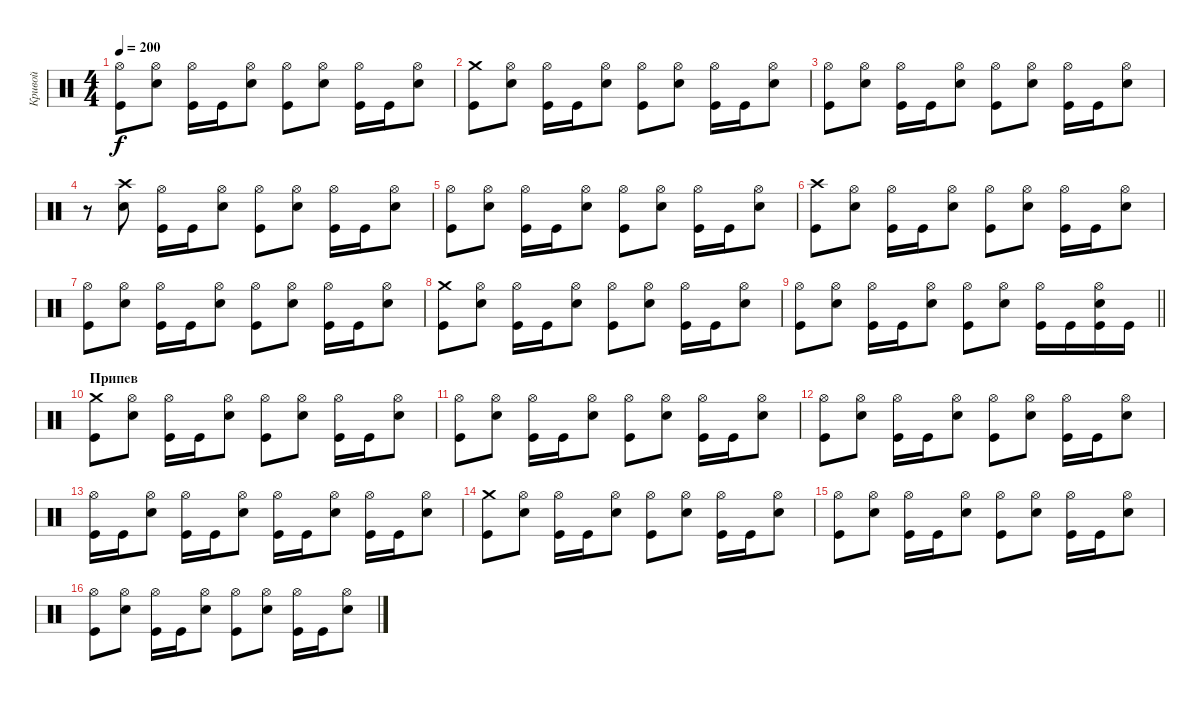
\track ("Кривой" "Кривой") {instrument percussion}
\staff {score}
\articulation defaults
\ts (4 4)
\tempo 200
\clef neutral
\ks c
("Hi-Hat (open)" "Kick (hit)").8{dy f} ("Hi-Hat (open)" "Electric Snare (hit)").8 ("Hi-Hat (open)" "Kick (hit)").16 "Kick (hit)".16 ("Hi-Hat (open)" "Electric Snare (hit)").8 ("Hi-Hat (open)" "Kick (hit)").8 ("Hi-Hat (open)" "Electric Snare (hit)").8 ("Hi-Hat (open)" "Kick (hit)").16 "Kick (hit)".16 ("Hi-Hat (open)" "Electric Snare (hit)").8 |
("Crash medium (hit)" "Kick (hit)").8 ("Hi-Hat (open)" "Electric Snare (hit)").8 ("Hi-Hat (open)" "Kick (hit)").16 "Kick (hit)".16 ("Hi-Hat (open)" "Electric Snare (hit)").8 ("Hi-Hat (open)" "Kick (hit)").8 ("Hi-Hat (open)" "Electric Snare (hit)").8 ("Hi-Hat (open)" "Kick (hit)").16 "Kick (hit)".16 ("Hi-Hat (open)" "Electric Snare (hit)").8 |
("Hi-Hat (open)" "Kick (hit)").8 ("Hi-Hat (open)" "Electric Snare (hit)").8 ("Hi-Hat (open)" "Kick (hit)").16 "Kick (hit)".16 ("Hi-Hat (open)" "Electric Snare (hit)").8 ("Hi-Hat (open)" "Kick (hit)").8 ("Hi-Hat (open)" "Electric Snare (hit)").8 ("Hi-Hat (open)" "Kick (hit)").16 "Kick (hit)".16 ("Hi-Hat (open)" "Electric Snare (hit)").8 |
r.8 ("Crash high (hit)" "Electric Snare (hit)").8 ("Hi-Hat (open)" "Kick (hit)").16 "Kick (hit)".16 ("Hi-Hat (open)" "Electric Snare (hit)").8 ("Hi-Hat (open)" "Kick (hit)").8 ("Hi-Hat (open)" "Electric Snare (hit)").8 ("Hi-Hat (open)" "Kick (hit)").16 "Kick (hit)".16 ("Hi-Hat (open)" "Electric Snare (hit)").8 |
("Hi-Hat (open)" "Kick (hit)").8 ("Hi-Hat (open)" "Electric Snare (hit)").8 ("Hi-Hat (open)" "Kick (hit)").16 "Kick (hit)".16 ("Hi-Hat (open)" "Electric Snare (hit)").8 ("Hi-Hat (open)" "Kick (hit)").8 ("Hi-Hat (open)" "Electric Snare (hit)").8 ("Hi-Hat (open)" "Kick (hit)").16 "Kick (hit)".16 ("Hi-Hat (open)" "Electric Snare (hit)").8 |
("Crash high (hit)" "Kick (hit)").8 ("Hi-Hat (open)" "Electric Snare (hit)").8 ("Hi-Hat (open)" "Kick (hit)").16 "Kick (hit)".16 ("Hi-Hat (open)" "Electric Snare (hit)").8 ("Hi-Hat (open)" "Kick (hit)").8 ("Hi-Hat (open)" "Electric Snare (hit)").8 ("Hi-Hat (open)" "Kick (hit)").16 "Kick (hit)".16 ("Hi-Hat (open)" "Electric Snare (hit)").8 |
("Hi-Hat (open)" "Kick (hit)").8 ("Hi-Hat (open)" "Electric Snare (hit)").8 ("Hi-Hat (open)" "Kick (hit)").16 "Kick (hit)".16 ("Hi-Hat (open)" "Electric Snare (hit)").8 ("Hi-Hat (open)" "Kick (hit)").8 ("Hi-Hat (open)" "Electric Snare (hit)").8 ("Hi-Hat (open)" "Kick (hit)").16 "Kick (hit)".16 ("Hi-Hat (open)" "Electric Snare (hit)").8 |
("Crash medium (hit)" "Kick (hit)").8 ("Hi-Hat (open)" "Electric Snare (hit)").8 ("Hi-Hat (open)" "Kick (hit)").16 "Kick (hit)".16 ("Hi-Hat (open)" "Electric Snare (hit)").8 ("Hi-Hat (open)" "Kick (hit)").8 ("Hi-Hat (open)" "Electric Snare (hit)").8 ("Hi-Hat (open)" "Kick (hit)").16 "Kick (hit)".16 ("Hi-Hat (open)" "Electric Snare (hit)").8 |
\barLineRight lightlight
("Hi-Hat (open)" "Kick (hit)").8 ("Hi-Hat (open)" "Electric Snare (hit)").8 ("Hi-Hat (open)" "Kick (hit)").16 "Kick (hit)".16 ("Hi-Hat (open)" "Electric Snare (hit)").8 ("Hi-Hat (open)" "Kick (hit)").8 ("Hi-Hat (open)" "Electric Snare (hit)").8 ("Hi-Hat (open)" "Kick (hit)").16 "Kick (hit)".16 ("Hi-Hat (open)" "Kick (hit)" "Electric Snare (hit)").16 "Kick (hit)".16 |
\section ("" "Припев")
("Crash medium (hit)" "Kick (hit)").8 ("Hi-Hat (open)" "Electric Snare (hit)").8 ("Hi-Hat (open)" "Kick (hit)").16 "Kick (hit)".16 ("Hi-Hat (open)" "Electric Snare (hit)").8 ("Hi-Hat (open)" "Kick (hit)").8 ("Hi-Hat (open)" "Electric Snare (hit)").8 ("Hi-Hat (open)" "Kick (hit)").16 "Kick (hit)".16 ("Hi-Hat (open)" "Electric Snare (hit)").8 |
("Hi-Hat (open)" "Kick (hit)").8 ("Hi-Hat (open)" "Electric Snare (hit)").8 ("Hi-Hat (open)" "Kick (hit)").16 "Kick (hit)".16 ("Hi-Hat (open)" "Electric Snare (hit)").8 ("Hi-Hat (open)" "Kick (hit)").8 ("Hi-Hat (open)" "Electric Snare (hit)").8 ("Hi-Hat (open)" "Kick (hit)").16 "Kick (hit)".16 ("Hi-Hat (open)" "Electric Snare (hit)").8 |
("Hi-Hat (open)" "Kick (hit)").8 ("Hi-Hat (open)" "Electric Snare (hit)").8 ("Hi-Hat (open)" "Kick (hit)").16 "Kick (hit)".16 ("Hi-Hat (open)" "Electric Snare (hit)").8 ("Hi-Hat (open)" "Kick (hit)").8 ("Hi-Hat (open)" "Electric Snare (hit)").8 ("Hi-Hat (open)" "Kick (hit)").16 "Kick (hit)".16 ("Hi-Hat (open)" "Electric Snare (hit)").8 |
("Hi-Hat (open)" "Kick (hit)").16 "Kick (hit)".16 ("Hi-Hat (open)" "Electric Snare (hit)").8 ("Hi-Hat (open)" "Kick (hit)").16 "Kick (hit)".16 ("Hi-Hat (open)" "Electric Snare (hit)").8 ("Hi-Hat (open)" "Kick (hit)").16 "Kick (hit)".16 ("Hi-Hat (open)" "Electric Snare (hit)").8 ("Hi-Hat (open)" "Kick (hit)").16 "Kick (hit)".16 ("Hi-Hat (open)" "Electric Snare (hit)").8 |
("Crash medium (hit)" "Kick (hit)").8 ("Hi-Hat (open)" "Electric Snare (hit)").8 ("Hi-Hat (open)" "Kick (hit)").16 "Kick (hit)".16 ("Hi-Hat (open)" "Electric Snare (hit)").8 ("Hi-Hat (open)" "Kick (hit)").8 ("Hi-Hat (open)" "Electric Snare (hit)").8 ("Hi-Hat (open)" "Kick (hit)").16 "Kick (hit)".16 ("Hi-Hat (open)" "Electric Snare (hit)").8 |
("Hi-Hat (open)" "Kick (hit)").8 ("Hi-Hat (open)" "Electric Snare (hit)").8 ("Hi-Hat (open)" "Kick (hit)").16 "Kick (hit)".16 ("Hi-Hat (open)" "Electric Snare (hit)").8 ("Hi-Hat (open)" "Kick (hit)").8 ("Hi-Hat (open)" "Electric Snare (hit)").8 ("Hi-Hat (open)" "Kick (hit)").16 "Kick (hit)".16 ("Hi-Hat (open)" "Electric Snare (hit)").8 |
("Hi-Hat (open)" "Kick (hit)").8 ("Hi-Hat (open)" "Electric Snare (hit)").8 ("Hi-Hat (open)" "Kick (hit)").16 "Kick (hit)".16 ("Hi-Hat (open)" "Electric Snare (hit)").8 ("Hi-Hat (open)" "Kick (hit)").8 ("Hi-Hat (open)" "Electric Snare (hit)").8 ("Hi-Hat (open)" "Kick (hit)").16 "Kick (hit)".16 ("Hi-Hat (open)" "Electric Snare (hit)").8
